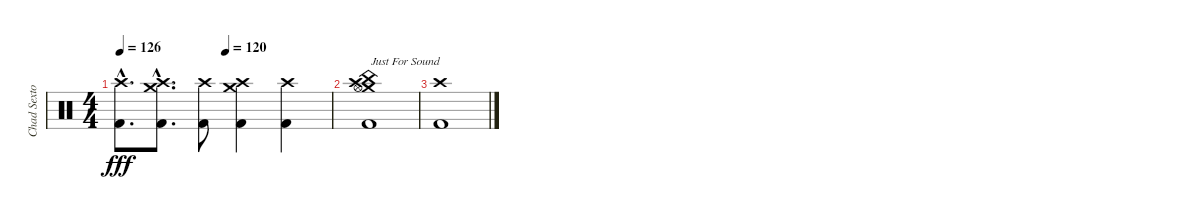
\track ("Chad Sexton (Drums)" "Chad Sexto") {instrument percussion}
\staff {score}
\articulation defaults
\ts (4 4)
\tempo 126
\tempo (120 0.5)
\clef neutral
\ks c
("Crash high (hit)"{hac} "Kick (hit) 2"{hac}).8{d dy fff} ("Crash medium (hit)"{hac} "Kick (hit) 2"{hac} "Crash high (hit)"{hac}).8{d} ("Crash high (hit)" "Kick (hit) 2").8 ("Crash medium (hit)" "Kick (hit) 2" "Crash high (hit)").4 ("Crash high (hit)" "Kick (hit) 2").4 |
("Crash high (hit)" "Kick (hit) 2" "Crash medium (hit)" "Hi-Hat (open)" "China (hit)").1{txt "Just For Sound"} |
("Crash high (hit)" "Kick (hit) 2").1
